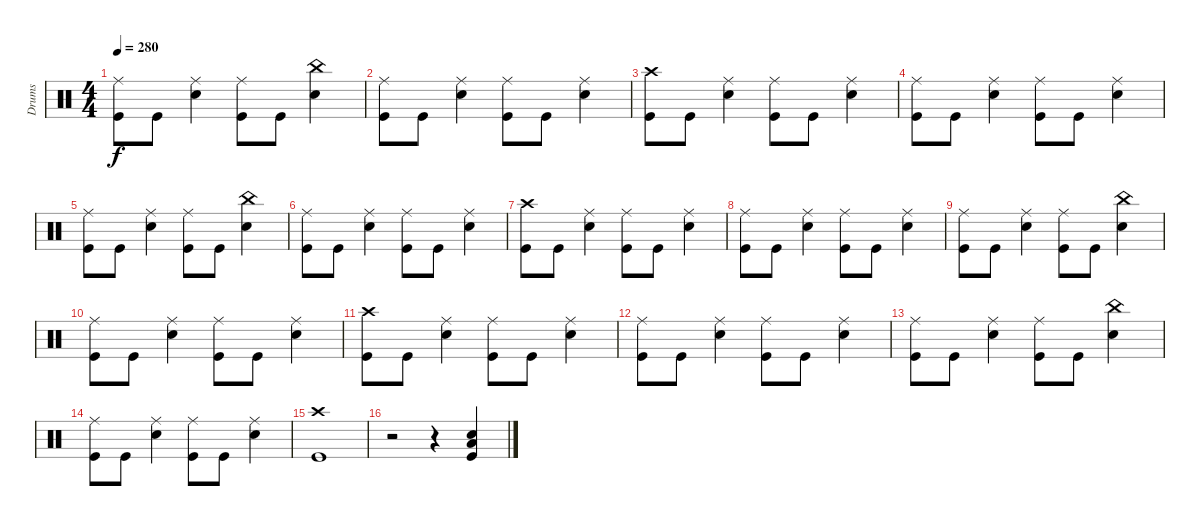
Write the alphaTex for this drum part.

\track ("Drums" "Drums") {instrument percussion}
\staff {score}
\articulation defaults
\ts (4 4)
\tempo 280
\clef neutral
\ks c
("Ride (middle)" "Kick (hit)").8{dy f} "Kick (hit)".8 ("Ride (middle)" "Electric Snare (hit)").4 ("Ride (middle)" "Kick (hit)").8 "Kick (hit)".8 ("China (hit)" "Electric Snare (hit)").4 |
("Ride (middle)" "Kick (hit)").8 "Kick (hit)".8 ("Ride (middle)" "Electric Snare (hit)").4 ("Ride (middle)" "Kick (hit)").8 "Kick (hit)".8 ("Ride (middle)" "Electric Snare (hit)").4 |
("Crash high (hit)" "Kick (hit)").8 "Kick (hit)".8 ("Ride (middle)" "Electric Snare (hit)").4 ("Ride (middle)" "Kick (hit)").8 "Kick (hit)".8 ("Ride (middle)" "Electric Snare (hit)").4 |
("Ride (middle)" "Kick (hit)").8 "Kick (hit)".8 ("Ride (middle)" "Electric Snare (hit)").4 ("Ride (middle)" "Kick (hit)").8 "Kick (hit)".8 ("Ride (middle)" "Electric Snare (hit)").4 |
("Ride (middle)" "Kick (hit)").8 "Kick (hit)".8 ("Ride (middle)" "Electric Snare (hit)").4 ("Ride (middle)" "Kick (hit)").8 "Kick (hit)".8 ("China (hit)" "Electric Snare (hit)").4 |
("Ride (middle)" "Kick (hit)").8 "Kick (hit)".8 ("Ride (middle)" "Electric Snare (hit)").4 ("Ride (middle)" "Kick (hit)").8 "Kick (hit)".8 ("Ride (middle)" "Electric Snare (hit)").4 |
("Crash high (hit)" "Kick (hit)").8 "Kick (hit)".8 ("Ride (middle)" "Electric Snare (hit)").4 ("Ride (middle)" "Kick (hit)").8 "Kick (hit)".8 ("Ride (middle)" "Electric Snare (hit)").4 |
("Ride (middle)" "Kick (hit)").8 "Kick (hit)".8 ("Ride (middle)" "Electric Snare (hit)").4 ("Ride (middle)" "Kick (hit)").8 "Kick (hit)".8 ("Ride (middle)" "Electric Snare (hit)").4 |
("Ride (middle)" "Kick (hit)").8 "Kick (hit)".8 ("Ride (middle)" "Electric Snare (hit)").4 ("Ride (middle)" "Kick (hit)").8 "Kick (hit)".8 ("China (hit)" "Electric Snare (hit)").4 |
("Ride (middle)" "Kick (hit)").8 "Kick (hit)".8 ("Ride (middle)" "Electric Snare (hit)").4 ("Ride (middle)" "Kick (hit)").8 "Kick (hit)".8 ("Ride (middle)" "Electric Snare (hit)").4 |
("Crash high (hit)" "Kick (hit)").8 "Kick (hit)".8 ("Ride (middle)" "Electric Snare (hit)").4 ("Ride (middle)" "Kick (hit)").8 "Kick (hit)".8 ("Ride (middle)" "Electric Snare (hit)").4 |
("Ride (middle)" "Kick (hit)").8 "Kick (hit)".8 ("Ride (middle)" "Electric Snare (hit)").4 ("Ride (middle)" "Kick (hit)").8 "Kick (hit)".8 ("Ride (middle)" "Electric Snare (hit)").4 |
("Ride (middle)" "Kick (hit)").8 "Kick (hit)".8 ("Ride (middle)" "Electric Snare (hit)").4 ("Ride (middle)" "Kick (hit)").8 "Kick (hit)".8 ("China (hit)" "Electric Snare (hit)").4 |
("Ride (middle)" "Kick (hit)").8 "Kick (hit)".8 ("Ride (middle)" "Electric Snare (hit)").4 ("Ride (middle)" "Kick (hit)").8 "Kick (hit)".8 ("Ride (middle)" "Electric Snare (hit)").4 |
("Crash high (hit)" "Kick (hit)").1 |
r.2 r.4 ("Electric Snare (hit)" "Kick (hit)" "Low Tom (hit)").4
